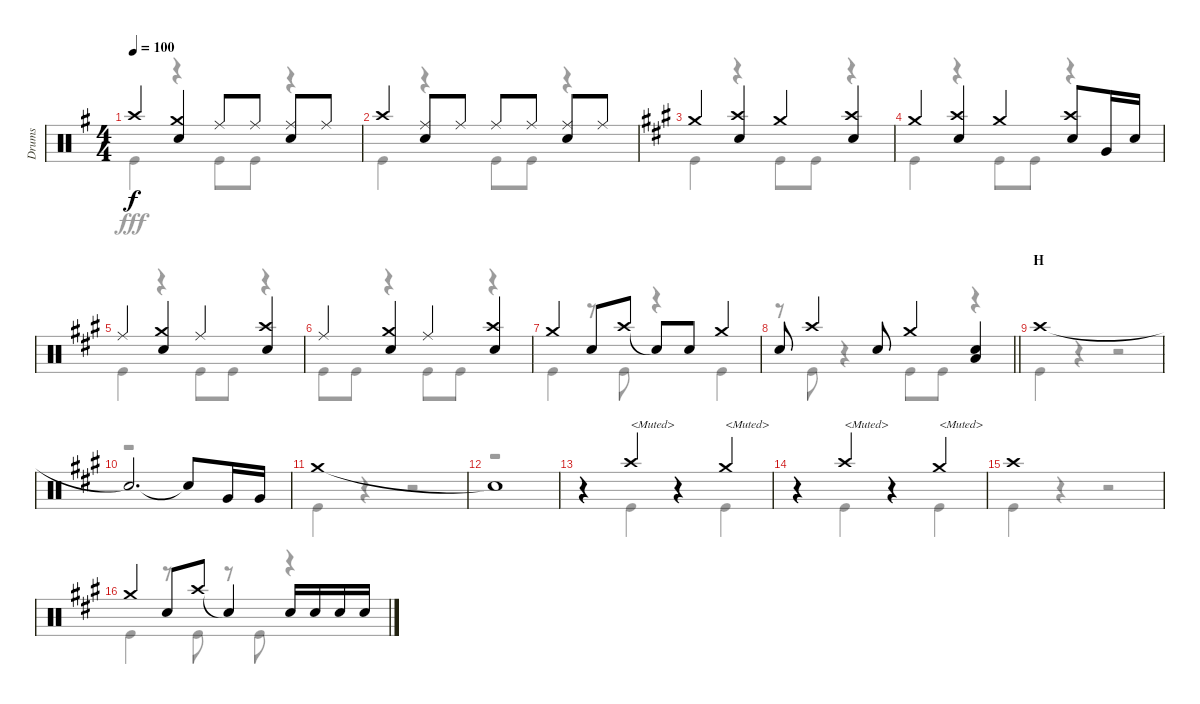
\track ("Drums" "Drums") {instrument percussion}
\staff {score}
\articulation defaults
\voice
\ts (4 4)
\tempo 100
\clef neutral
\ks g "Crash high (hit)".4{dy f}
("Crash medium (hit)" "Snare (hit) 2").4 "Ride (middle)".8 "Ride (middle)".8 ("Ride (middle)" "Snare (hit) 2").8 "Ride (middle)".8 |
"Crash high (hit)".4 ("Ride (middle)" "Snare (hit) 2").8 "Ride (middle)".8 "Ride (middle)".8 "Ride (middle)".8 ("Ride (middle)" "Snare (hit) 2").8 "Ride (middle)".8 |
\ks a "Crash medium (hit)".4
("Crash high (hit)" "Snare (hit) 2").4 "Crash medium (hit)".4 ("Crash high (hit)" "Snare (hit) 2").4 |
"Crash medium (hit)".4 ("Crash high (hit)" "Snare (hit) 2").4 "Crash medium (hit)".4 ("Crash high (hit)" "Snare (hit) 2").8 "Very Low Tom (hit)".16 "Snare (hit) 2".16 |
"Ride (middle)".4 ("Crash medium (hit)" "Snare (hit) 2").4 "Ride (middle)".4 ("Crash high (hit)" "Snare (hit) 2").4 |
"Ride (middle)".4 ("Crash medium (hit)" "Snare (hit) 2").4 "Ride (middle)".4 ("Crash high (hit)" "Snare (hit) 2").4 |
"Crash medium (hit)".4 "Snare (hit) 2".8 "Crash high (hit)".8 "Snare (hit)"{t}.8 "Snare (hit) 2".8 "Crash medium (hit)".4 |
\barLineRight lightlight "Snare (hit) 2".8 "Crash high (hit)".4 "Snare (hit) 2".8 "Crash medium (hit)".4
("Snare (hit) 2" "Low Tom (hit)").4 |
\section ("" "H")
"Crash high (hit)".1 |
"Snare (hit)"{t}.2{d} "Snare (hit)"{t}.8 "Very Low Tom (hit)".16 "Very Low Tom (hit)".16 |
"Crash medium (hit)".1 |
"Snare (hit)"{t}.1 |
r.4 "Crash high (hit)".4{txt "<Muted>"} r.4 "Crash medium (hit)".4{txt "<Muted>"} |
r.4 "Crash high (hit)".4{txt "<Muted>"} r.4 "Crash medium (hit)".4{txt "<Muted>"} |
"Crash high (hit)".1 |
"Crash medium (hit)".4 "Snare (hit) 2".8 "Crash high (hit)".8 "Snare (hit)"{t}.4 "Snare (hit) 2".16 "Snare (hit) 2".16 "Snare (hit) 2".16 "Snare (hit) 2".16
\voice
\clef neutral
\ottava regular
\simile none
\ks g "Kick (hit)".4{dy fff}
r.4 "Kick (hit)".8 "Kick (hit)".8 r.4 |
"Kick (hit)".4 r.4 "Kick (hit)".8 "Kick (hit)".8 r.4 |
\ks a "Kick (hit)".4
r.4 "Kick (hit)".8 "Kick (hit)".8 r.4 |
"Kick (hit)".4 r.4 "Kick (hit)".8 "Kick (hit)".8 r.4 |
"Kick (hit)".4 r.4 "Kick (hit)".8 "Kick (hit)".8 r.4 |
"Kick (hit)".8 "Kick (hit)".8 r.4 "Kick (hit)".8 "Kick (hit)".8 r.4 |
"Kick (hit)".4 r.8 "Kick (hit)".8 r.4 "Kick (hit)".4 |
\barLineRight lightlight
r.8 "Kick (hit)".8 r.4 "Kick (hit)".8 "Kick (hit)".8 r.4 |
"Kick (hit)".4 r.4 r.2 |
r.1 |
"Kick (hit)".4 r.4 r.2 |
r.1 |
r.4 "Kick (hit)".4 r.4 "Kick (hit)".4 |
r.4 "Kick (hit)".4 r.4 "Kick (hit)".4 |
"Kick (hit)".4 r.4 r.2 |
"Kick (hit)".4 r.8 "Kick (hit)".8 r.8 "Kick (hit)".8 r.4
